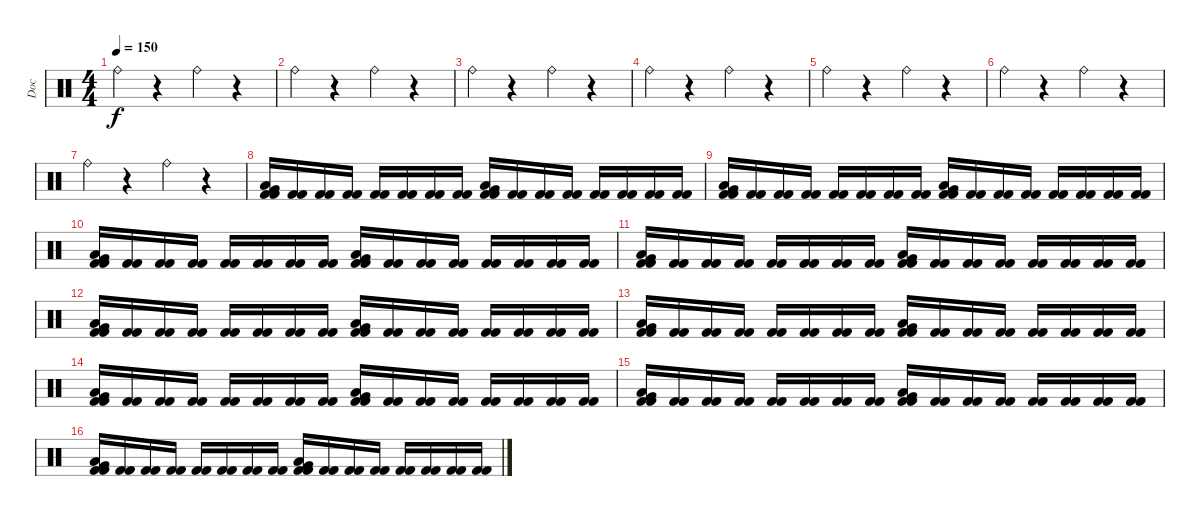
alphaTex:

\track ("Doc" "Doc") {instrument percussion}
\staff {score}
\articulation defaults
\ts (4 4)
\tempo 150
\clef neutral
\ks c "Ride (bell)".4{dy f}
r.4 "Ride (bell)".4 r.4 |
"Ride (bell)".4 r.4 "Ride (bell)".4 r.4 |
"Ride (bell)".4 r.4 "Ride (bell)".4 r.4 |
"Ride (bell)".4 r.4 "Ride (bell)".4 r.4 |
"Ride (bell)".4 r.4 "Ride (bell)".4 r.4 |
"Ride (bell)".4 r.4 "Ride (bell)".4 r.4 |
"Ride (bell)".4 r.4 "Ride (bell)".4 r.4 |
("Kick (hit) 2" "Very Low Tom (hit)" "Low Tom (hit)" "Kick (hit) 2").16 ("Kick (hit) 2" "Kick (hit) 2").16 ("Kick (hit) 2" "Kick (hit) 2").16 ("Kick (hit) 2" "Kick (hit) 2").16 ("Kick (hit) 2" "Kick (hit) 2").16 ("Kick (hit) 2" "Kick (hit) 2").16 ("Kick (hit) 2" "Kick (hit) 2").16 ("Kick (hit) 2" "Kick (hit) 2").16 ("Kick (hit) 2" "Very Low Tom (hit)" "Low Tom (hit)" "Kick (hit) 2").16 ("Kick (hit) 2" "Kick (hit) 2").16 ("Kick (hit) 2" "Kick (hit) 2").16 ("Kick (hit) 2" "Kick (hit) 2").16 ("Kick (hit) 2" "Kick (hit) 2").16 ("Kick (hit) 2" "Kick (hit) 2").16 ("Kick (hit) 2" "Kick (hit) 2").16 ("Kick (hit) 2" "Kick (hit) 2").16 |
("Kick (hit) 2" "Very Low Tom (hit)" "Low Tom (hit)" "Kick (hit) 2").16 ("Kick (hit) 2" "Kick (hit) 2").16 ("Kick (hit) 2" "Kick (hit) 2").16 ("Kick (hit) 2" "Kick (hit) 2").16 ("Kick (hit) 2" "Kick (hit) 2").16 ("Kick (hit) 2" "Kick (hit) 2").16 ("Kick (hit) 2" "Kick (hit) 2").16 ("Kick (hit) 2" "Kick (hit) 2").16 ("Kick (hit) 2" "Very Low Tom (hit)" "Low Tom (hit)" "Kick (hit) 2").16 ("Kick (hit) 2" "Kick (hit) 2").16 ("Kick (hit) 2" "Kick (hit) 2").16 ("Kick (hit) 2" "Kick (hit) 2").16 ("Kick (hit) 2" "Kick (hit) 2").16 ("Kick (hit) 2" "Kick (hit) 2").16 ("Kick (hit) 2" "Kick (hit) 2").16 ("Kick (hit) 2" "Kick (hit) 2").16 |
("Kick (hit) 2" "Very Low Tom (hit)" "Low Tom (hit)" "Kick (hit) 2").16 ("Kick (hit) 2" "Kick (hit) 2").16 ("Kick (hit) 2" "Kick (hit) 2").16 ("Kick (hit) 2" "Kick (hit) 2").16 ("Kick (hit) 2" "Kick (hit) 2").16 ("Kick (hit) 2" "Kick (hit) 2").16 ("Kick (hit) 2" "Kick (hit) 2").16 ("Kick (hit) 2" "Kick (hit) 2").16 ("Kick (hit) 2" "Very Low Tom (hit)" "Low Tom (hit)" "Kick (hit) 2").16 ("Kick (hit) 2" "Kick (hit) 2").16 ("Kick (hit) 2" "Kick (hit) 2").16 ("Kick (hit) 2" "Kick (hit) 2").16 ("Kick (hit) 2" "Kick (hit) 2").16 ("Kick (hit) 2" "Kick (hit) 2").16 ("Kick (hit) 2" "Kick (hit) 2").16 ("Kick (hit) 2" "Kick (hit) 2").16 |
("Kick (hit) 2" "Very Low Tom (hit)" "Low Tom (hit)" "Kick (hit) 2").16 ("Kick (hit) 2" "Kick (hit) 2").16 ("Kick (hit) 2" "Kick (hit) 2").16 ("Kick (hit) 2" "Kick (hit) 2").16 ("Kick (hit) 2" "Kick (hit) 2").16 ("Kick (hit) 2" "Kick (hit) 2").16 ("Kick (hit) 2" "Kick (hit) 2").16 ("Kick (hit) 2" "Kick (hit) 2").16 ("Kick (hit) 2" "Very Low Tom (hit)" "Low Tom (hit)" "Kick (hit) 2").16 ("Kick (hit) 2" "Kick (hit) 2").16 ("Kick (hit) 2" "Kick (hit) 2").16 ("Kick (hit) 2" "Kick (hit) 2").16 ("Kick (hit) 2" "Kick (hit) 2").16 ("Kick (hit) 2" "Kick (hit) 2").16 ("Kick (hit) 2" "Kick (hit) 2").16 ("Kick (hit) 2" "Kick (hit) 2").16 |
("Kick (hit) 2" "Very Low Tom (hit)" "Low Tom (hit)" "Kick (hit) 2").16 ("Kick (hit) 2" "Kick (hit) 2").16 ("Kick (hit) 2" "Kick (hit) 2").16 ("Kick (hit) 2" "Kick (hit) 2").16 ("Kick (hit) 2" "Kick (hit) 2").16 ("Kick (hit) 2" "Kick (hit) 2").16 ("Kick (hit) 2" "Kick (hit) 2").16 ("Kick (hit) 2" "Kick (hit) 2").16 ("Kick (hit) 2" "Very Low Tom (hit)" "Low Tom (hit)" "Kick (hit) 2").16 ("Kick (hit) 2" "Kick (hit) 2").16 ("Kick (hit) 2" "Kick (hit) 2").16 ("Kick (hit) 2" "Kick (hit) 2").16 ("Kick (hit) 2" "Kick (hit) 2").16 ("Kick (hit) 2" "Kick (hit) 2").16 ("Kick (hit) 2" "Kick (hit) 2").16 ("Kick (hit) 2" "Kick (hit) 2").16 |
("Kick (hit) 2" "Very Low Tom (hit)" "Low Tom (hit)" "Kick (hit) 2").16 ("Kick (hit) 2" "Kick (hit) 2").16 ("Kick (hit) 2" "Kick (hit) 2").16 ("Kick (hit) 2" "Kick (hit) 2").16 ("Kick (hit) 2" "Kick (hit) 2").16 ("Kick (hit) 2" "Kick (hit) 2").16 ("Kick (hit) 2" "Kick (hit) 2").16 ("Kick (hit) 2" "Kick (hit) 2").16 ("Kick (hit) 2" "Very Low Tom (hit)" "Low Tom (hit)" "Kick (hit) 2").16 ("Kick (hit) 2" "Kick (hit) 2").16 ("Kick (hit) 2" "Kick (hit) 2").16 ("Kick (hit) 2" "Kick (hit) 2").16 ("Kick (hit) 2" "Kick (hit) 2").16 ("Kick (hit) 2" "Kick (hit) 2").16 ("Kick (hit) 2" "Kick (hit) 2").16 ("Kick (hit) 2" "Kick (hit) 2").16 |
("Kick (hit) 2" "Very Low Tom (hit)" "Low Tom (hit)" "Kick (hit) 2").16 ("Kick (hit) 2" "Kick (hit) 2").16 ("Kick (hit) 2" "Kick (hit) 2").16 ("Kick (hit) 2" "Kick (hit) 2").16 ("Kick (hit) 2" "Kick (hit) 2").16 ("Kick (hit) 2" "Kick (hit) 2").16 ("Kick (hit) 2" "Kick (hit) 2").16 ("Kick (hit) 2" "Kick (hit) 2").16 ("Kick (hit) 2" "Very Low Tom (hit)" "Low Tom (hit)" "Kick (hit) 2").16 ("Kick (hit) 2" "Kick (hit) 2").16 ("Kick (hit) 2" "Kick (hit) 2").16 ("Kick (hit) 2" "Kick (hit) 2").16 ("Kick (hit) 2" "Kick (hit) 2").16 ("Kick (hit) 2" "Kick (hit) 2").16 ("Kick (hit) 2" "Kick (hit) 2").16 ("Kick (hit) 2" "Kick (hit) 2").16 |
("Kick (hit) 2" "Very Low Tom (hit)" "Low Tom (hit)" "Kick (hit) 2").16 ("Kick (hit) 2" "Kick (hit) 2").16 ("Kick (hit) 2" "Kick (hit) 2").16 ("Kick (hit) 2" "Kick (hit) 2").16 ("Kick (hit) 2" "Kick (hit) 2").16 ("Kick (hit) 2" "Kick (hit) 2").16 ("Kick (hit) 2" "Kick (hit) 2").16 ("Kick (hit) 2" "Kick (hit) 2").16 ("Kick (hit) 2" "Very Low Tom (hit)" "Low Tom (hit)" "Kick (hit) 2").16 ("Kick (hit) 2" "Kick (hit) 2").16 ("Kick (hit) 2" "Kick (hit) 2").16 ("Kick (hit) 2" "Kick (hit) 2").16 ("Kick (hit) 2" "Kick (hit) 2").16 ("Kick (hit) 2" "Kick (hit) 2").16 ("Kick (hit) 2" "Kick (hit) 2").16 ("Kick (hit) 2" "Kick (hit) 2").16 |
("Kick (hit) 2" "Very Low Tom (hit)" "Low Tom (hit)" "Kick (hit) 2").16 ("Kick (hit) 2" "Kick (hit) 2").16 ("Kick (hit) 2" "Kick (hit) 2").16 ("Kick (hit) 2" "Kick (hit) 2").16 ("Kick (hit) 2" "Kick (hit) 2").16 ("Kick (hit) 2" "Kick (hit) 2").16 ("Kick (hit) 2" "Kick (hit) 2").16 ("Kick (hit) 2" "Kick (hit) 2").16 ("Kick (hit) 2" "Very Low Tom (hit)" "Low Tom (hit)" "Kick (hit) 2").16 ("Kick (hit) 2" "Kick (hit) 2").16 ("Kick (hit) 2" "Kick (hit) 2").16 ("Kick (hit) 2" "Kick (hit) 2").16 ("Kick (hit) 2" "Kick (hit) 2").16 ("Kick (hit) 2" "Kick (hit) 2").16 ("Kick (hit) 2" "Kick (hit) 2").16 ("Kick (hit) 2" "Kick (hit) 2").16
